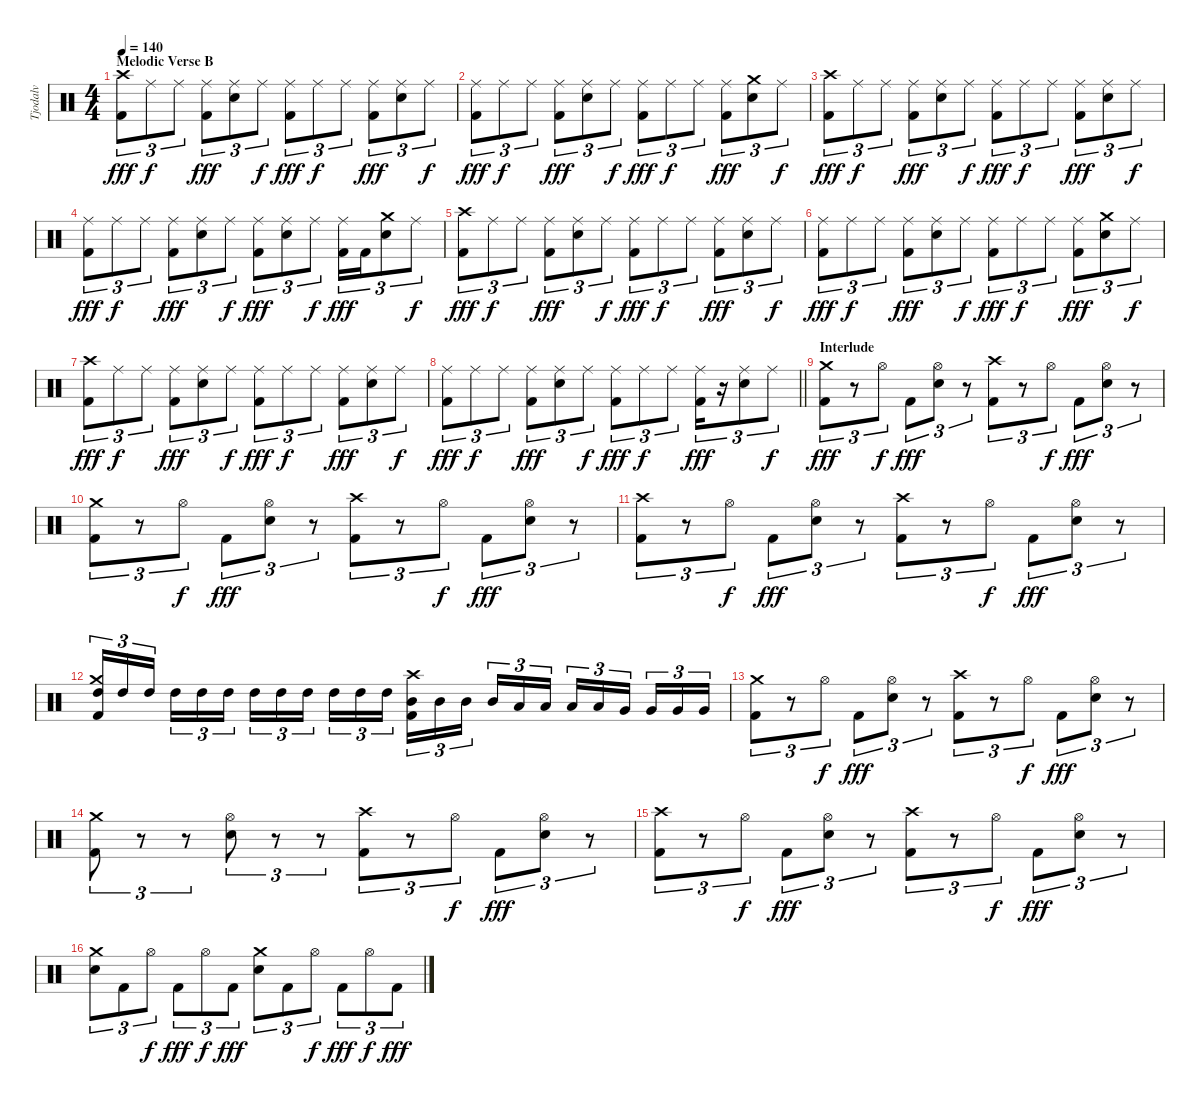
\track ("Tjodalv" "Tjodalv") {instrument percussion}
\staff {score}
\articulation defaults
\ts (4 4)
\section ("" "Melodic Verse B")
\tempo 140
\clef neutral
\ks c
("Crash high (hit)" "Kick (hit) 2").8{tu (3 2) dy fff} "Ride (middle)".8{tu (3 2) dy f} "Ride (middle)".8{tu (3 2)} ("Ride (middle)" "Kick (hit) 2").8{tu (3 2) dy fff} ("Ride (middle)" "Snare (hit) 2").8{tu (3 2)} "Ride (middle)".8{tu (3 2) dy f} ("Ride (middle)" "Kick (hit) 2").8{tu (3 2) dy fff} "Ride (middle)".8{tu (3 2) dy f} "Ride (middle)".8{tu (3 2)} ("Ride (middle)" "Kick (hit) 2").8{tu (3 2) dy fff} ("Ride (middle)" "Snare (hit) 2").8{tu (3 2)} "Ride (middle)".8{tu (3 2) dy f} |
("Ride (middle)" "Kick (hit) 2").8{tu (3 2) dy fff} "Ride (middle)".8{tu (3 2) dy f} "Ride (middle)".8{tu (3 2)} ("Ride (middle)" "Kick (hit) 2").8{tu (3 2) dy fff} ("Ride (middle)" "Snare (hit) 2").8{tu (3 2)} "Ride (middle)".8{tu (3 2) dy f} ("Ride (middle)" "Kick (hit) 2").8{tu (3 2) dy fff} "Ride (middle)".8{tu (3 2) dy f} "Ride (middle)".8{tu (3 2)} ("Ride (middle)" "Kick (hit) 2").8{tu (3 2) dy fff} ("Crash medium (hit)" "Snare (hit) 2").8{tu (3 2)} "Ride (middle)".8{tu (3 2) dy f} |
("Crash high (hit)" "Kick (hit) 2").8{tu (3 2) dy fff} "Ride (middle)".8{tu (3 2) dy f} "Ride (middle)".8{tu (3 2)} ("Ride (middle)" "Kick (hit) 2").8{tu (3 2) dy fff} ("Ride (middle)" "Snare (hit) 2").8{tu (3 2)} "Ride (middle)".8{tu (3 2) dy f} ("Ride (middle)" "Kick (hit) 2").8{tu (3 2) dy fff} "Ride (middle)".8{tu (3 2) dy f} "Ride (middle)".8{tu (3 2)} ("Ride (middle)" "Kick (hit) 2").8{tu (3 2) dy fff} ("Ride (middle)" "Snare (hit) 2").8{tu (3 2)} "Ride (middle)".8{tu (3 2) dy f} |
("Ride (middle)" "Kick (hit) 2").8{tu (3 2) dy fff} "Ride (middle)".8{tu (3 2) dy f} "Ride (middle)".8{tu (3 2)} ("Ride (middle)" "Kick (hit) 2").8{tu (3 2) dy fff} ("Ride (middle)" "Snare (hit) 2").8{tu (3 2)} "Ride (middle)".8{tu (3 2) dy f} ("Ride (middle)" "Kick (hit) 2").8{tu (3 2) dy fff} ("Ride (middle)" "Snare (hit) 2").8{tu (3 2)} "Ride (middle)".8{tu (3 2) dy f} ("Ride (middle)" "Kick (hit) 2").16{tu (3 2) dy fff} "Kick (hit) 2".16{tu (3 2)} ("Crash medium (hit)" "Snare (hit) 2").8{tu (3 2)} "Ride (middle)".8{tu (3 2) dy f} |
("Crash high (hit)" "Kick (hit) 2").8{tu (3 2) dy fff} "Ride (middle)".8{tu (3 2) dy f} "Ride (middle)".8{tu (3 2)} ("Ride (middle)" "Kick (hit) 2").8{tu (3 2) dy fff} ("Ride (middle)" "Snare (hit) 2").8{tu (3 2)} "Ride (middle)".8{tu (3 2) dy f} ("Ride (middle)" "Kick (hit) 2").8{tu (3 2) dy fff} "Ride (middle)".8{tu (3 2) dy f} "Ride (middle)".8{tu (3 2)} ("Ride (middle)" "Kick (hit) 2").8{tu (3 2) dy fff} ("Ride (middle)" "Snare (hit) 2").8{tu (3 2)} "Ride (middle)".8{tu (3 2) dy f} |
("Ride (middle)" "Kick (hit) 2").8{tu (3 2) dy fff} "Ride (middle)".8{tu (3 2) dy f} "Ride (middle)".8{tu (3 2)} ("Ride (middle)" "Kick (hit) 2").8{tu (3 2) dy fff} ("Ride (middle)" "Snare (hit) 2").8{tu (3 2)} "Ride (middle)".8{tu (3 2) dy f} ("Ride (middle)" "Kick (hit) 2").8{tu (3 2) dy fff} "Ride (middle)".8{tu (3 2) dy f} "Ride (middle)".8{tu (3 2)} ("Ride (middle)" "Kick (hit) 2").8{tu (3 2) dy fff} ("Crash medium (hit)" "Snare (hit) 2").8{tu (3 2)} "Ride (middle)".8{tu (3 2) dy f} |
("Crash high (hit)" "Kick (hit) 2").8{tu (3 2) dy fff} "Ride (middle)".8{tu (3 2) dy f} "Ride (middle)".8{tu (3 2)} ("Ride (middle)" "Kick (hit) 2").8{tu (3 2) dy fff} ("Ride (middle)" "Snare (hit) 2").8{tu (3 2)} "Ride (middle)".8{tu (3 2) dy f} ("Ride (middle)" "Kick (hit) 2").8{tu (3 2) dy fff} "Ride (middle)".8{tu (3 2) dy f} "Ride (middle)".8{tu (3 2)} ("Ride (middle)" "Kick (hit) 2").8{tu (3 2) dy fff} ("Ride (middle)" "Snare (hit) 2").8{tu (3 2)} "Ride (middle)".8{tu (3 2) dy f} |
\barLineRight lightlight
("Ride (middle)" "Kick (hit) 2").8{tu (3 2) dy fff} "Ride (middle)".8{tu (3 2) dy f} "Ride (middle)".8{tu (3 2)} ("Ride (middle)" "Kick (hit) 2").8{tu (3 2) dy fff} ("Ride (middle)" "Snare (hit) 2").8{tu (3 2)} "Ride (middle)".8{tu (3 2) dy f} ("Ride (middle)" "Kick (hit) 2").8{tu (3 2) dy fff} "Ride (middle)".8{tu (3 2) dy f} "Ride (middle)".8{tu (3 2)} ("Ride (middle)" "Kick (hit) 2").16{tu (3 2) dy fff} r.16{tu (3 2)} ("Ride (middle)" "Snare (hit) 2").8{tu (3 2)} "Ride (middle)".8{tu (3 2) dy f} |
\section ("" "Interlude")
("Crash medium (hit)" "Kick (hit) 2").8{tu (3 2) dy fff} r.8{tu (3 2)} "Hi-Hat (open)".8{tu (3 2) dy f} "Kick (hit) 2".8{tu (3 2) dy fff} ("Hi-Hat (open)" "Snare (hit) 2").8{tu (3 2)} r.8{tu (3 2)} ("Crash high (hit)" "Kick (hit) 2").8{tu (3 2)} r.8{tu (3 2)} "Hi-Hat (open)".8{tu (3 2) dy f} "Kick (hit) 2".8{tu (3 2) dy fff} ("Hi-Hat (open)" "Snare (hit) 2").8{tu (3 2)} r.8{tu (3 2)} |
("Crash medium (hit)" "Kick (hit) 2").8{tu (3 2)} r.8{tu (3 2)} "Hi-Hat (open)".8{tu (3 2) dy f} "Kick (hit) 2".8{tu (3 2) dy fff} ("Hi-Hat (open)" "Snare (hit) 2").8{tu (3 2)} r.8{tu (3 2)} ("Crash high (hit)" "Kick (hit) 2").8{tu (3 2)} r.8{tu (3 2)} "Hi-Hat (open)".8{tu (3 2) dy f} "Kick (hit) 2".8{tu (3 2) dy fff} ("Hi-Hat (open)" "Snare (hit) 2").8{tu (3 2)} r.8{tu (3 2)} |
("Crash high (hit)" "Kick (hit) 2").8{tu (3 2)} r.8{tu (3 2)} "Hi-Hat (open)".8{tu (3 2) dy f} "Kick (hit) 2".8{tu (3 2) dy fff} ("Hi-Hat (open)" "Snare (hit) 2").8{tu (3 2)} r.8{tu (3 2)} ("Crash high (hit)" "Kick (hit) 2").8{tu (3 2)} r.8{tu (3 2)} "Hi-Hat (open)".8{tu (3 2) dy f} "Kick (hit) 2".8{tu (3 2) dy fff} ("Hi-Hat (open)" "Snare (hit) 2").8{tu (3 2)} r.8{tu (3 2)} |
("Crash medium (hit)" "High Tom (hit)" "Kick (hit) 2").16{tu (3 2)} "High Tom (hit)".16{tu (3 2)} "High Tom (hit)".16{tu (3 2) beam splitsecondary} "High Tom (hit)".16{tu (3 2)} "High Tom (hit)".16{tu (3 2)} "High Tom (hit)".16{tu (3 2)} "High Tom (hit)".16{tu (3 2)} "High Tom (hit)".16{tu (3 2)} "High Tom (hit)".16{tu (3 2) beam splitsecondary} "High Tom (hit)".16{tu (3 2)} "High Tom (hit)".16{tu (3 2)} "High Tom (hit)".16{tu (3 2)} ("Crash high (hit)" "Mid Tom (hit)" "Kick (hit) 2").16{tu (3 2)} "Mid Tom (hit)".16{tu (3 2)} "Mid Tom (hit)".16{tu (3 2) beam splitsecondary} "Mid Tom (hit)".16{tu (3 2)} "Low Tom (hit)".16{tu (3 2)} "Low Tom (hit)".16{tu (3 2)} "Low Tom (hit)".16{tu (3 2)} "Low Tom (hit)".16{tu (3 2)} "Very Low Tom (hit)".16{tu (3 2) beam splitsecondary} "Very Low Tom (hit)".16{tu (3 2)} "Very Low Tom (hit)".16{tu (3 2)} "Very Low Tom (hit)".16{tu (3 2)} |
("Crash medium (hit)" "Kick (hit) 2").8{tu (3 2)} r.8{tu (3 2)} "Hi-Hat (open)".8{tu (3 2) dy f} "Kick (hit) 2".8{tu (3 2) dy fff} ("Hi-Hat (open)" "Snare (hit) 2").8{tu (3 2)} r.8{tu (3 2)} ("Crash high (hit)" "Kick (hit) 2").8{tu (3 2)} r.8{tu (3 2)} "Hi-Hat (open)".8{tu (3 2) dy f} "Kick (hit) 2".8{tu (3 2) dy fff} ("Hi-Hat (open)" "Snare (hit) 2").8{tu (3 2)} r.8{tu (3 2)} |
("Crash medium (hit)" "Kick (hit) 2").8{tu (3 2)} r.8{tu (3 2)} r.8{tu (3 2)} ("Hi-Hat (open)" "Snare (hit) 2").8{tu (3 2)} r.8{tu (3 2)} r.8{tu (3 2)} ("Crash high (hit)" "Kick (hit) 2").8{tu (3 2)} r.8{tu (3 2)} "Hi-Hat (open)".8{tu (3 2) dy f} "Kick (hit) 2".8{tu (3 2) dy fff} ("Hi-Hat (open)" "Snare (hit) 2").8{tu (3 2)} r.8{tu (3 2)} |
("Crash high (hit)" "Kick (hit) 2").8{tu (3 2)} r.8{tu (3 2)} "Hi-Hat (open)".8{tu (3 2) dy f} "Kick (hit) 2".8{tu (3 2) dy fff} ("Hi-Hat (open)" "Snare (hit) 2").8{tu (3 2)} r.8{tu (3 2)} ("Crash high (hit)" "Kick (hit) 2").8{tu (3 2)} r.8{tu (3 2)} "Hi-Hat (open)".8{tu (3 2) dy f} "Kick (hit) 2".8{tu (3 2) dy fff} ("Hi-Hat (open)" "Snare (hit) 2").8{tu (3 2)} r.8{tu (3 2)} |
("Crash medium (hit)" "Snare (hit) 2").8{tu (3 2)} "Kick (hit) 2".8{tu (3 2)} "Hi-Hat (open)".8{tu (3 2) dy f} "Kick (hit) 2".8{tu (3 2) dy fff} "Hi-Hat (open)".8{tu (3 2) dy f} "Kick (hit) 2".8{tu (3 2) dy fff} ("Crash medium (hit)" "Snare (hit) 2").8{tu (3 2)} "Kick (hit) 2".8{tu (3 2)} "Hi-Hat (open)".8{tu (3 2) dy f} "Kick (hit) 2".8{tu (3 2) dy fff} "Hi-Hat (open)".8{tu (3 2) dy f} "Kick (hit) 2".8{tu (3 2) dy fff}
